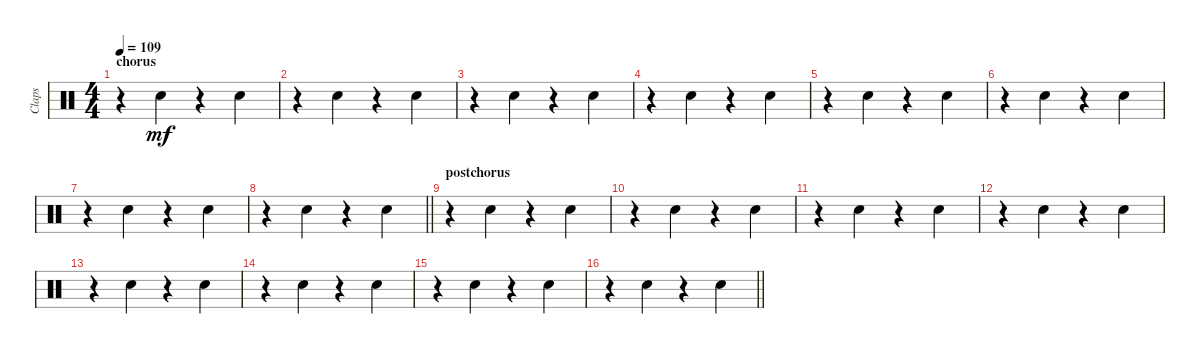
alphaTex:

\track ("Claps" "Claps") {instrument percussion}
\staff {score}
\articulation defaults
\ts (4 4)
\section ("" "chorus")
\tempo 109
\clef neutral
\ks c
r.4{dy mp} "Hand Clap (hit)".4{dy mf} r.4 "Hand Clap (hit)".4 |
r.4 "Hand Clap (hit)".4 r.4 "Hand Clap (hit)".4 |
r.4 "Hand Clap (hit)".4 r.4 "Hand Clap (hit)".4 |
r.4 "Hand Clap (hit)".4 r.4 "Hand Clap (hit)".4 |
r.4 "Hand Clap (hit)".4 r.4 "Hand Clap (hit)".4 |
r.4 "Hand Clap (hit)".4 r.4 "Hand Clap (hit)".4 |
r.4 "Hand Clap (hit)".4 r.4 "Hand Clap (hit)".4 |
\barLineRight lightlight
r.4 "Hand Clap (hit)".4 r.4 "Hand Clap (hit)".4 |
\section ("" "postchorus")
r.4 "Hand Clap (hit)".4 r.4 "Hand Clap (hit)".4 |
r.4 "Hand Clap (hit)".4 r.4 "Hand Clap (hit)".4 |
r.4 "Hand Clap (hit)".4 r.4 "Hand Clap (hit)".4 |
r.4 "Hand Clap (hit)".4 r.4 "Hand Clap (hit)".4 |
r.4 "Hand Clap (hit)".4 r.4 "Hand Clap (hit)".4 |
r.4 "Hand Clap (hit)".4 r.4 "Hand Clap (hit)".4 |
r.4 "Hand Clap (hit)".4 r.4 "Hand Clap (hit)".4 |
\barLineRight lightlight
r.4 "Hand Clap (hit)".4 r.4 "Hand Clap (hit)".4
